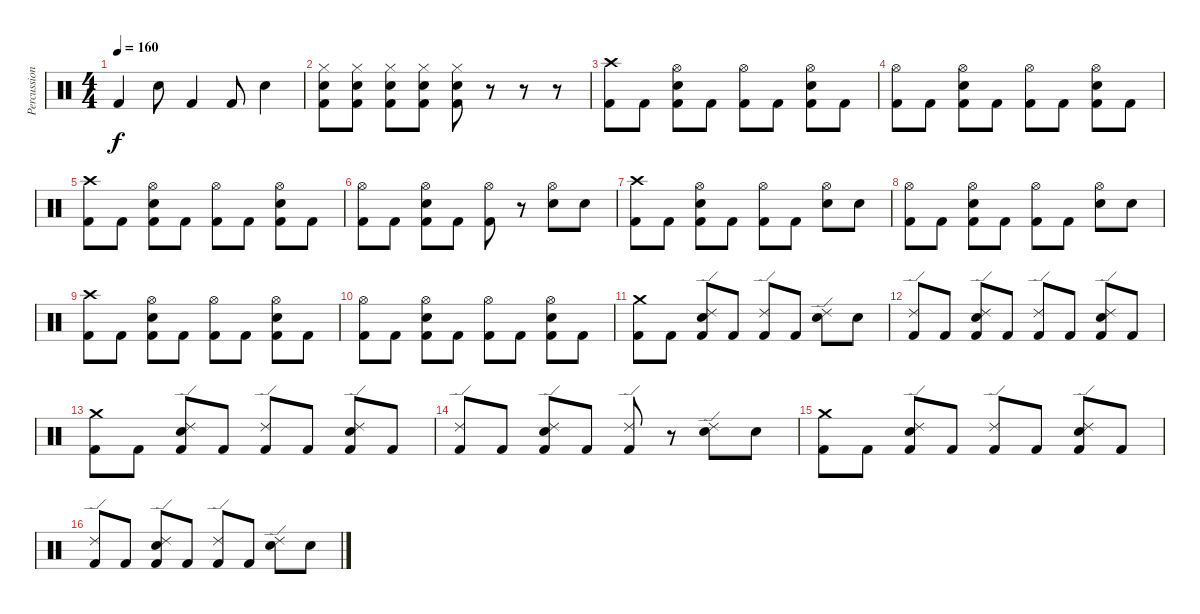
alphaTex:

\track ("Percussion" "Percussion") {instrument percussion}
\staff {score}
\articulation defaults
\ts (4 4)
\tempo 160
\clef neutral
\ks c "Kick (hit) 2".4{dy f} "Electric Snare (hit)".8 "Kick (hit) 2".4 "Kick (hit) 2".8 "Electric Snare (hit)".4
|
("Hi-Hat (closed)" "Electric Snare (hit)" "Kick (hit) 2").8 ("Hi-Hat (closed)" "Electric Snare (hit)" "Kick (hit) 2").8 ("Hi-Hat (closed)" "Electric Snare (hit)" "Kick (hit) 2").8 ("Hi-Hat (closed)" "Electric Snare (hit)" "Kick (hit) 2").8 ("Hi-Hat (closed)" "Electric Snare (hit)" "Kick (hit) 2").8 r.8 r.8 r.8 |
("Crash high (hit)" "Kick (hit) 2").8 "Kick (hit) 2".8 ("Hi-Hat (open)" "Electric Snare (hit)" "Kick (hit) 2").8 "Kick (hit) 2".8 ("Hi-Hat (open)" "Kick (hit) 2").8 "Kick (hit) 2".8 ("Hi-Hat (open)" "Electric Snare (hit)" "Kick (hit) 2").8 "Kick (hit) 2".8 |
("Hi-Hat (open)" "Kick (hit) 2").8 "Kick (hit) 2".8 ("Hi-Hat (open)" "Electric Snare (hit)" "Kick (hit) 2").8 "Kick (hit) 2".8 ("Hi-Hat (open)" "Kick (hit) 2").8 "Kick (hit) 2".8 ("Hi-Hat (open)" "Electric Snare (hit)" "Kick (hit) 2").8 "Kick (hit) 2".8 |
("Crash high (hit)" "Kick (hit) 2").8 "Kick (hit) 2".8 ("Hi-Hat (open)" "Electric Snare (hit)" "Kick (hit) 2").8 "Kick (hit) 2".8 ("Hi-Hat (open)" "Kick (hit) 2").8 "Kick (hit) 2".8 ("Hi-Hat (open)" "Electric Snare (hit)" "Kick (hit) 2").8 "Kick (hit) 2".8 |
("Hi-Hat (open)" "Kick (hit) 2").8 "Kick (hit) 2".8 ("Hi-Hat (open)" "Electric Snare (hit)" "Kick (hit) 2").8 "Kick (hit) 2".8 ("Hi-Hat (open)" "Kick (hit) 2").8 r.8 ("Hi-Hat (open)" "Electric Snare (hit)").8 "Electric Snare (hit)".8 |
("Crash high (hit)" "Kick (hit) 2").8 "Kick (hit) 2".8 ("Hi-Hat (open)" "Electric Snare (hit)" "Kick (hit) 2").8 "Kick (hit) 2".8 ("Hi-Hat (open)" "Kick (hit) 2").8 "Kick (hit) 2".8 ("Hi-Hat (open)" "Electric Snare (hit)").8 "Electric Snare (hit)".8 |
("Hi-Hat (open)" "Kick (hit) 2").8 "Kick (hit) 2".8 ("Hi-Hat (open)" "Electric Snare (hit)" "Kick (hit) 2").8 "Kick (hit) 2".8 ("Hi-Hat (open)" "Kick (hit) 2").8 "Kick (hit) 2".8 ("Hi-Hat (open)" "Electric Snare (hit)").8 "Electric Snare (hit)".8 |
("Crash high (hit)" "Kick (hit) 2").8 "Kick (hit) 2".8 ("Hi-Hat (open)" "Electric Snare (hit)" "Kick (hit) 2").8 "Kick (hit) 2".8 ("Hi-Hat (open)" "Kick (hit) 2").8 "Kick (hit) 2".8 ("Hi-Hat (open)" "Electric Snare (hit)" "Kick (hit) 2").8 "Kick (hit) 2".8 |
("Hi-Hat (open)" "Kick (hit) 2").8 "Kick (hit) 2".8 ("Hi-Hat (open)" "Electric Snare (hit)" "Kick (hit) 2").8 "Kick (hit) 2".8 ("Hi-Hat (open)" "Kick (hit) 2").8 "Kick (hit) 2".8 ("Hi-Hat (open)" "Electric Snare (hit)" "Kick (hit) 2").8 "Kick (hit) 2".8 |
("Crash medium (hit)" "Kick (hit) 2").8 "Kick (hit) 2".8 ("Ride (edge) 2" "Electric Snare (hit)" "Kick (hit) 2").8 "Kick (hit) 2".8 ("Ride (edge) 2" "Kick (hit) 2").8 "Kick (hit) 2".8 ("Ride (edge) 2" "Electric Snare (hit)").8 "Electric Snare (hit)".8 |
("Ride (edge) 2" "Kick (hit) 2").8 "Kick (hit) 2".8 ("Ride (edge) 2" "Electric Snare (hit)" "Kick (hit) 2").8 "Kick (hit) 2".8 ("Ride (edge) 2" "Kick (hit) 2").8 "Kick (hit) 2".8 ("Ride (edge) 2" "Electric Snare (hit)" "Kick (hit) 2").8 "Kick (hit) 2".8 |
("Crash medium (hit)" "Kick (hit) 2").8 "Kick (hit) 2".8 ("Ride (edge) 2" "Electric Snare (hit)" "Kick (hit) 2").8 "Kick (hit) 2".8 ("Ride (edge) 2" "Kick (hit) 2").8 "Kick (hit) 2".8 ("Ride (edge) 2" "Electric Snare (hit)" "Kick (hit) 2").8 "Kick (hit) 2".8 |
("Ride (edge) 2" "Kick (hit) 2").8 "Kick (hit) 2".8 ("Ride (edge) 2" "Electric Snare (hit)" "Kick (hit) 2").8 "Kick (hit) 2".8 ("Ride (edge) 2" "Kick (hit) 2").8 r.8 ("Ride (edge) 2" "Electric Snare (hit)").8 "Electric Snare (hit)".8 |
("Crash medium (hit)" "Kick (hit) 2").8 "Kick (hit) 2".8 ("Ride (edge) 2" "Electric Snare (hit)" "Kick (hit) 2").8 "Kick (hit) 2".8 ("Ride (edge) 2" "Kick (hit) 2").8 "Kick (hit) 2".8 ("Ride (edge) 2" "Electric Snare (hit)" "Kick (hit) 2").8 "Kick (hit) 2".8 |
("Ride (edge) 2" "Kick (hit) 2").8 "Kick (hit) 2".8 ("Ride (edge) 2" "Electric Snare (hit)" "Kick (hit) 2").8 "Kick (hit) 2".8 ("Ride (edge) 2" "Kick (hit) 2").8 "Kick (hit) 2".8 ("Ride (edge) 2" "Electric Snare (hit)").8 "Electric Snare (hit)".8
